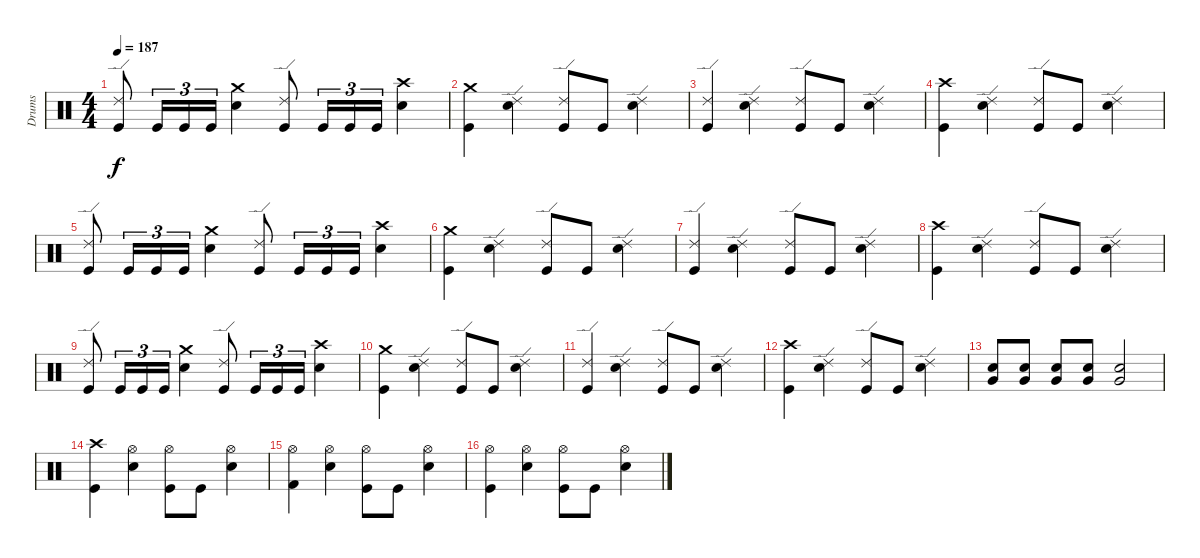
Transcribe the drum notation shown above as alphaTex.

\track ("Drums" "Drums") {instrument percussion}
\staff {score}
\articulation defaults
\ts (4 4)
\tempo 187
\clef neutral
\ks c
("Ride (edge) 2" "Kick (hit)").8{dy f} "Kick (hit)".16{tu (3 2)} "Kick (hit)".16{tu (3 2)} "Kick (hit)".16{tu (3 2)} ("Crash medium (hit)" "Snare (hit) 2").4 ("Ride (edge) 2" "Kick (hit)").8 "Kick (hit)".16{tu (3 2)} "Kick (hit)".16{tu (3 2)} "Kick (hit)".16{tu (3 2)} ("Crash high (hit)" "Snare (hit) 2").4 |
("Crash medium (hit)" "Kick (hit)").4 ("Ride (edge) 2" "Snare (hit) 2").4 ("Ride (edge) 2" "Kick (hit)").8 "Kick (hit)".8 ("Ride (edge) 2" "Snare (hit) 2").4 |
("Ride (edge) 2" "Kick (hit)").4 ("Ride (edge) 2" "Snare (hit) 2").4 ("Ride (edge) 2" "Kick (hit)").8 "Kick (hit)".8 ("Ride (edge) 2" "Snare (hit) 2").4 |
("Crash high (hit)" "Kick (hit)").4 ("Ride (edge) 2" "Snare (hit) 2").4 ("Ride (edge) 2" "Kick (hit)").8 "Kick (hit)".8 ("Ride (edge) 2" "Snare (hit) 2").4 |
("Ride (edge) 2" "Kick (hit)").8 "Kick (hit)".16{tu (3 2)} "Kick (hit)".16{tu (3 2)} "Kick (hit)".16{tu (3 2)} ("Crash medium (hit)" "Snare (hit) 2").4 ("Ride (edge) 2" "Kick (hit)").8 "Kick (hit)".16{tu (3 2)} "Kick (hit)".16{tu (3 2)} "Kick (hit)".16{tu (3 2)} ("Crash high (hit)" "Snare (hit) 2").4 |
("Crash medium (hit)" "Kick (hit)").4 ("Ride (edge) 2" "Snare (hit) 2").4 ("Ride (edge) 2" "Kick (hit)").8 "Kick (hit)".8 ("Ride (edge) 2" "Snare (hit) 2").4 |
("Ride (edge) 2" "Kick (hit)").4 ("Ride (edge) 2" "Snare (hit) 2").4 ("Ride (edge) 2" "Kick (hit)").8 "Kick (hit)".8 ("Ride (edge) 2" "Snare (hit) 2").4 |
("Crash high (hit)" "Kick (hit)").4 ("Ride (edge) 2" "Snare (hit) 2").4 ("Ride (edge) 2" "Kick (hit)").8 "Kick (hit)".8 ("Ride (edge) 2" "Snare (hit) 2").4 |
("Ride (edge) 2" "Kick (hit)").8 "Kick (hit)".16{tu (3 2)} "Kick (hit)".16{tu (3 2)} "Kick (hit)".16{tu (3 2)} ("Crash medium (hit)" "Snare (hit) 2").4 ("Ride (edge) 2" "Kick (hit)").8 "Kick (hit)".16{tu (3 2)} "Kick (hit)".16{tu (3 2)} "Kick (hit)".16{tu (3 2)} ("Crash high (hit)" "Snare (hit) 2").4 |
("Crash medium (hit)" "Kick (hit)").4 ("Ride (edge) 2" "Snare (hit) 2").4 ("Ride (edge) 2" "Kick (hit)").8 "Kick (hit)".8 ("Ride (edge) 2" "Snare (hit) 2").4 |
("Ride (edge) 2" "Kick (hit)").4 ("Ride (edge) 2" "Snare (hit) 2").4 ("Ride (edge) 2" "Kick (hit)").8 "Kick (hit)".8 ("Ride (edge) 2" "Snare (hit) 2").4 |
("Crash high (hit)" "Kick (hit)").4 ("Ride (edge) 2" "Snare (hit) 2").4 ("Ride (edge) 2" "Kick (hit)").8 "Kick (hit)".8 ("Ride (edge) 2" "Snare (hit) 2").4 |
("Very Low Tom (hit)" "Snare (hit) 2").8 ("Very Low Tom (hit)" "Snare (hit) 2").8 ("Very Low Tom (hit)" "Snare (hit) 2").8 ("Very Low Tom (hit)" "Snare (hit) 2").8 ("Very Low Tom (hit)" "Snare (hit) 2").2 |
("Crash high (hit)" "Kick (hit)").4 ("Hi-Hat (open)" "Snare (hit) 2").4 ("Hi-Hat (open)" "Kick (hit)").8 "Kick (hit)".8 ("Hi-Hat (open)" "Snare (hit) 2").4 |
("Hi-Hat (open)" "Kick (hit) 2").4 ("Hi-Hat (open)" "Snare (hit) 2").4 ("Hi-Hat (open)" "Kick (hit)").8 "Kick (hit)".8 ("Hi-Hat (open)" "Snare (hit) 2").4 |
("Hi-Hat (open)" "Kick (hit)").4 ("Hi-Hat (open)" "Snare (hit) 2").4 ("Hi-Hat (open)" "Kick (hit)").8 "Kick (hit)".8 ("Hi-Hat (open)" "Snare (hit) 2").4
